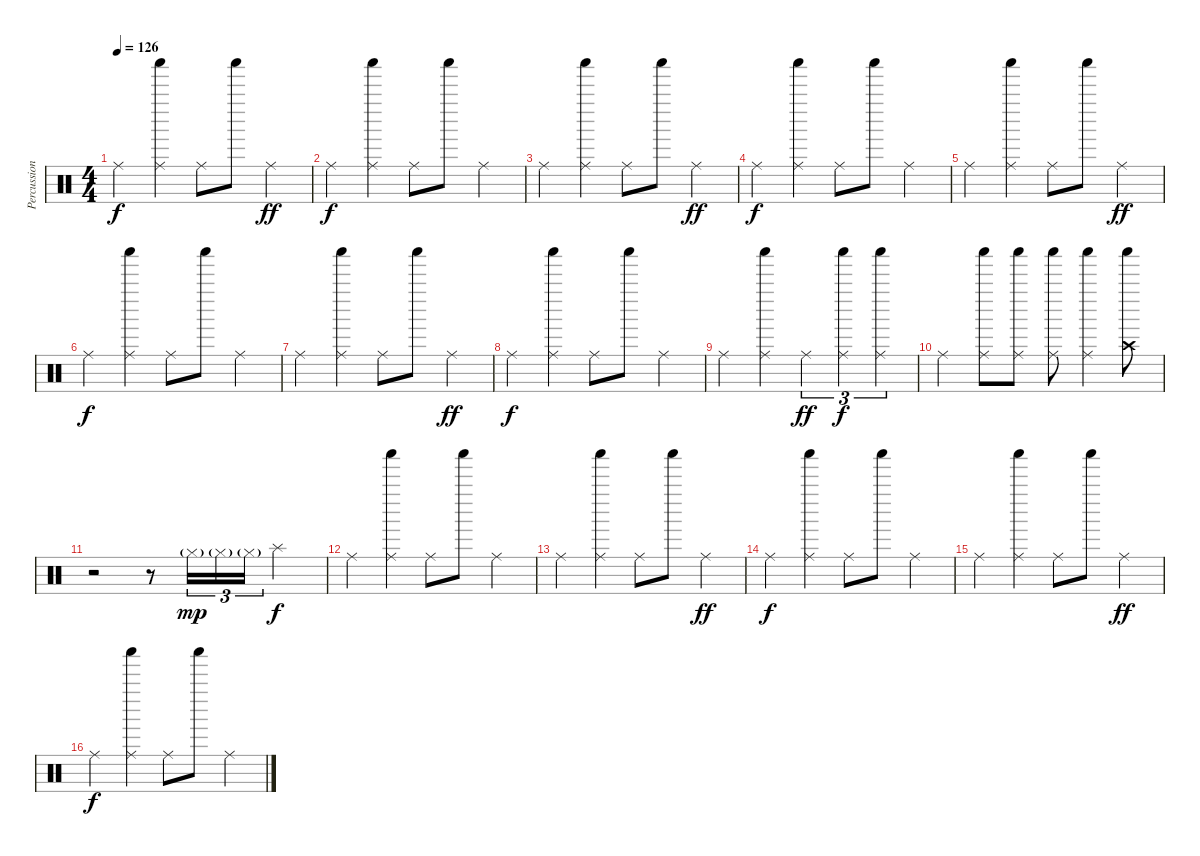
\track ("Percussion" "Percussion") {instrument percussion}
\staff {score}
\articulation defaults
\ts (4 4)
\tempo 126
\clef neutral
\ks c "Ride (middle)".4{dy f}
("Ride (middle)" "Shaker (hit)").4 "Ride (middle)".8 "Shaker (hit)".8 "Ride (middle)".4{dy ff} |
"Ride (middle)".4{dy f} ("Ride (middle)" "Shaker (hit)").4 "Ride (middle)".8 "Shaker (hit)".8 "Ride (middle)".4 |
"Ride (middle)".4 ("Ride (middle)" "Shaker (hit)").4 "Ride (middle)".8 "Shaker (hit)".8 "Ride (middle)".4{dy ff} |
"Ride (middle)".4{dy f} ("Ride (middle)" "Shaker (hit)").4 "Ride (middle)".8 "Shaker (hit)".8 "Ride (middle)".4 |
"Ride (middle)".4 ("Ride (middle)" "Shaker (hit)").4 "Ride (middle)".8 "Shaker (hit)".8 "Ride (middle)".4{dy ff} |
"Ride (middle)".4{dy f} ("Ride (middle)" "Shaker (hit)").4 "Ride (middle)".8 "Shaker (hit)".8 "Ride (middle)".4 |
"Ride (middle)".4 ("Ride (middle)" "Shaker (hit)").4 "Ride (middle)".8 "Shaker (hit)".8 "Ride (middle)".4{dy ff} |
"Ride (middle)".4{dy f} ("Ride (middle)" "Shaker (hit)").4 "Ride (middle)".8 "Shaker (hit)".8 "Ride (middle)".4 |
"Ride (middle)".4 ("Ride (middle)" "Shaker (hit)").4 "Ride (middle)".4{tu (3 2) dy ff} ("Ride (middle)" "Shaker (hit)").4{tu (3 2) dy f} ("Ride (middle)" "Shaker (hit)").4{tu (3 2)} |
"Ride (middle)".4 ("Ride (middle)" "Shaker (hit)").8 ("Ride (middle)" "Shaker (hit)").8 ("Ride (middle)" "Shaker (hit)").8 ("Ride (middle)" "Shaker (hit)").4 ("Crash high (hit)" "Shaker (hit)").8 |
r.2 r.8 "Hi-Hat (closed)"{g}.16{tu (3 2) dy mp} "Hi-Hat (closed)"{g}.16{tu (3 2)} "Hi-Hat (closed)"{g}.16{tu (3 2)} "Splash (hit)".4{dy f} |
"Ride (middle)".4 ("Ride (middle)" "Shaker (hit)").4 "Ride (middle)".8 "Shaker (hit)".8 "Ride (middle)".4 |
"Ride (middle)".4 ("Ride (middle)" "Shaker (hit)").4 "Ride (middle)".8 "Shaker (hit)".8 "Ride (middle)".4{dy ff} |
"Ride (middle)".4{dy f} ("Ride (middle)" "Shaker (hit)").4 "Ride (middle)".8 "Shaker (hit)".8 "Ride (middle)".4 |
"Ride (middle)".4 ("Ride (middle)" "Shaker (hit)").4 "Ride (middle)".8 "Shaker (hit)".8 "Ride (middle)".4{dy ff} |
"Ride (middle)".4{dy f} ("Ride (middle)" "Shaker (hit)").4 "Ride (middle)".8 "Shaker (hit)".8 "Ride (middle)".4
